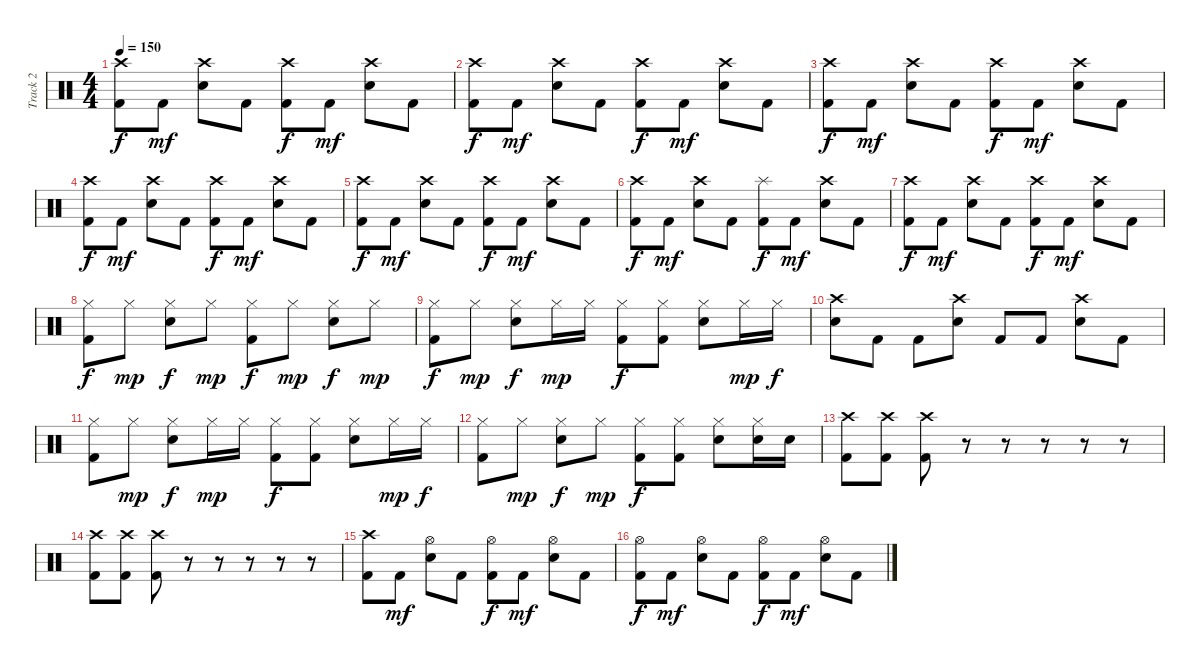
\track ("Track 2" "Track 2") {instrument percussion}
\staff {score}
\articulation defaults
\ts (4 4)
\tempo 150
\clef neutral
\ks c
("Crash high (hit)" "Kick (hit) 2").8{dy f} "Kick (hit) 2".8{dy mf} ("Crash high (hit)" "Electric Snare (hit)").8 "Kick (hit) 2".8 ("Crash high (hit)" "Kick (hit) 2").8{dy f} "Kick (hit) 2".8{dy mf} ("Crash high (hit)" "Electric Snare (hit)").8 "Kick (hit) 2".8 |
("Crash high (hit)" "Kick (hit) 2").8{dy f} "Kick (hit) 2".8{dy mf} ("Crash high (hit)" "Electric Snare (hit)").8 "Kick (hit) 2".8 ("Crash high (hit)" "Kick (hit) 2").8{dy f} "Kick (hit) 2".8{dy mf} ("Crash high (hit)" "Electric Snare (hit)").8 "Kick (hit) 2".8 |
("Crash high (hit)" "Kick (hit) 2").8{dy f} "Kick (hit) 2".8{dy mf} ("Crash high (hit)" "Electric Snare (hit)").8 "Kick (hit) 2".8 ("Crash high (hit)" "Kick (hit) 2").8{dy f} "Kick (hit) 2".8{dy mf} ("Crash high (hit)" "Electric Snare (hit)").8 "Kick (hit) 2".8 |
("Crash high (hit)" "Kick (hit) 2").8{dy f} "Kick (hit) 2".8{dy mf} ("Crash high (hit)" "Electric Snare (hit)").8 "Kick (hit) 2".8 ("Crash high (hit)" "Kick (hit) 2").8{dy f} "Kick (hit) 2".8{dy mf} ("Crash high (hit)" "Electric Snare (hit)").8 "Kick (hit) 2".8 |
("Crash high (hit)" "Kick (hit) 2").8{dy f} "Kick (hit) 2".8{dy mf} ("Crash high (hit)" "Electric Snare (hit)").8 "Kick (hit) 2".8 ("Crash high (hit)" "Kick (hit) 2").8{dy f} "Kick (hit) 2".8{dy mf} ("Crash high (hit)" "Electric Snare (hit)").8 "Kick (hit) 2".8 |
("Crash high (hit)" "Kick (hit) 2").8{dy f} "Kick (hit) 2".8{dy mf} ("Crash high (hit)" "Electric Snare (hit)").8 "Kick (hit) 2".8 ("Splash (hit)" "Kick (hit) 2").8{dy f} "Kick (hit) 2".8{dy mf} ("Crash high (hit)" "Electric Snare (hit)").8 "Kick (hit) 2".8 |
("Crash high (hit)" "Kick (hit) 2").8{dy f} "Kick (hit) 2".8{dy mf} ("Crash high (hit)" "Electric Snare (hit)").8 "Kick (hit) 2".8 ("Crash high (hit)" "Kick (hit) 2").8{dy f} "Kick (hit) 2".8{dy mf} ("Crash high (hit)" "Electric Snare (hit)").8 "Kick (hit) 2".8 |
("Hi-Hat (closed)" "Kick (hit) 2").8{dy f} "Hi-Hat (closed)".8{dy mp} ("Hi-Hat (closed)" "Electric Snare (hit)").8{dy f} "Hi-Hat (closed)".8{dy mp} ("Hi-Hat (closed)" "Kick (hit) 2").8{dy f} "Hi-Hat (closed)".8{dy mp} ("Hi-Hat (closed)" "Electric Snare (hit)").8{dy f} "Hi-Hat (closed)".8{dy mp} |
("Hi-Hat (closed)" "Kick (hit) 2").8{dy f} "Hi-Hat (closed)".8{dy mp} ("Hi-Hat (closed)" "Electric Snare (hit)").8{dy f} "Hi-Hat (closed)".16{dy mp} "Hi-Hat (closed)".16 ("Hi-Hat (closed)" "Kick (hit) 2").8{dy f} ("Hi-Hat (closed)" "Kick (hit) 2").8 ("Hi-Hat (closed)" "Electric Snare (hit)").8 "Hi-Hat (closed)".16{dy mp} "Hi-Hat (closed)".16{dy f} |
("Crash high (hit)" "Electric Snare (hit)").8 "Kick (hit) 2".8 "Kick (hit) 2".8 ("Crash high (hit)" "Electric Snare (hit)").8 "Kick (hit) 2".8 "Kick (hit) 2".8 ("Crash high (hit)" "Electric Snare (hit)").8 "Kick (hit) 2".8 |
("Hi-Hat (closed)" "Kick (hit) 2").8 "Hi-Hat (closed)".8{dy mp} ("Hi-Hat (closed)" "Electric Snare (hit)").8{dy f} "Hi-Hat (closed)".16{dy mp} "Hi-Hat (closed)".16 ("Hi-Hat (closed)" "Kick (hit) 2").8{dy f} ("Hi-Hat (closed)" "Kick (hit) 2").8 ("Hi-Hat (closed)" "Electric Snare (hit)").8 "Hi-Hat (closed)".16{dy mp} "Hi-Hat (closed)".16{dy f} |
("Hi-Hat (closed)" "Kick (hit) 2").8 "Hi-Hat (closed)".8{dy mp} ("Hi-Hat (closed)" "Electric Snare (hit)").8{dy f} "Hi-Hat (closed)".8{dy mp} ("Hi-Hat (closed)" "Kick (hit) 2").8{dy f} ("Hi-Hat (closed)" "Kick (hit) 2").8 ("Hi-Hat (closed)" "Electric Snare (hit)").8 ("Hi-Hat (closed)" "Electric Snare (hit)").16 "Electric Snare (hit)".16 |
("Crash high (hit)" "Kick (hit) 2").8 ("Crash high (hit)" "Kick (hit) 2").8 ("Crash high (hit)" "Kick (hit) 2").8 r.8 r.8 r.8 r.8 r.8 |
("Crash high (hit)" "Kick (hit) 2").8 ("Crash high (hit)" "Kick (hit) 2").8 ("Crash high (hit)" "Kick (hit) 2").8 r.8 r.8 r.8 r.8 r.8 |
("Crash high (hit)" "Kick (hit) 2").8 "Kick (hit) 2".8{dy mf} ("Hi-Hat (open)" "Electric Snare (hit)").8 "Kick (hit) 2".8 ("Hi-Hat (open)" "Kick (hit) 2").8{dy f} "Kick (hit) 2".8{dy mf} ("Hi-Hat (open)" "Electric Snare (hit)").8 "Kick (hit) 2".8 |
("Hi-Hat (open)" "Kick (hit) 2").8{dy f} "Kick (hit) 2".8{dy mf} ("Hi-Hat (open)" "Electric Snare (hit)").8 "Kick (hit) 2".8 ("Hi-Hat (open)" "Kick (hit) 2").8{dy f} "Kick (hit) 2".8{dy mf} ("Hi-Hat (open)" "Electric Snare (hit)").8 "Kick (hit) 2".8
